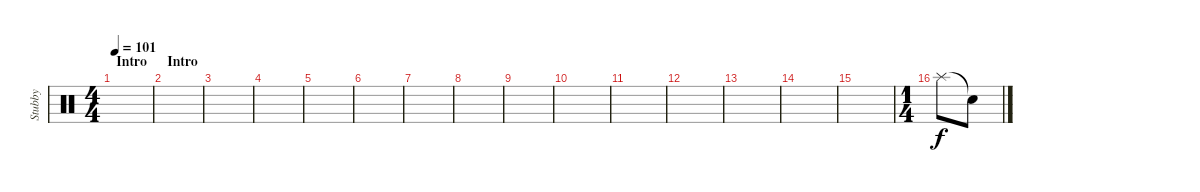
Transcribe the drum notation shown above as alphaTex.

\track ("Stubby" "Stubby") {instrument percussion}
\staff {score}
\articulation defaults
\ts (4 4)
\section ("" "Intro")
\tempo 101
\clef neutral
\ks c
|
\section ("" "Intro")
|
|
|
|
|
|
|
|
|
|
|
|
|
|
\ts (1 4)
"Splash (hit)".8 "Snare (hit)"{t}.8
